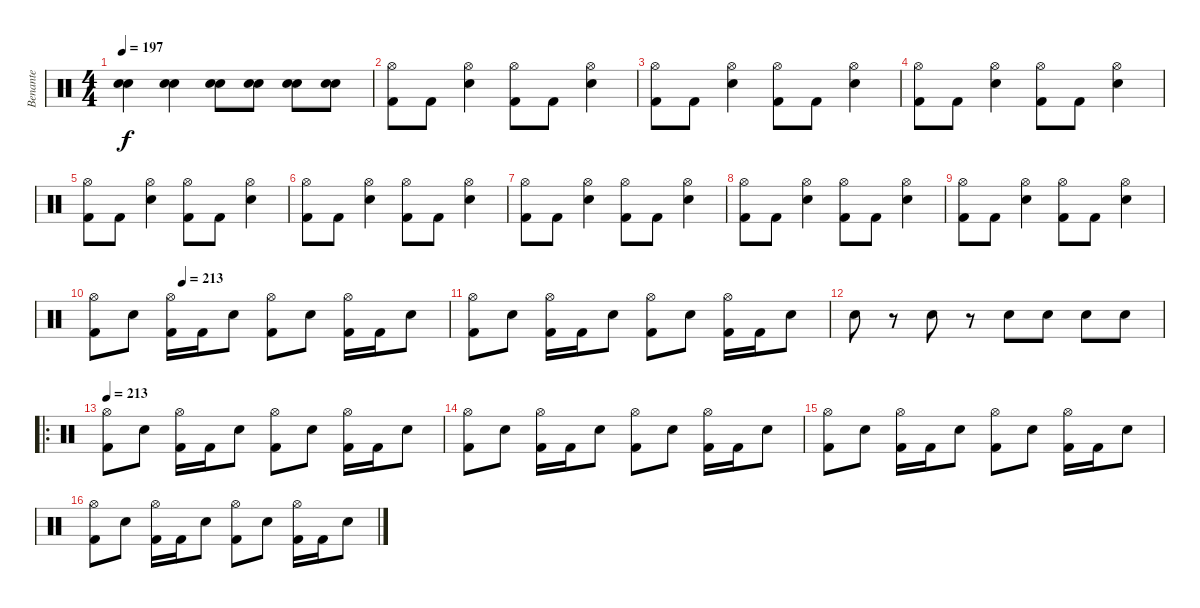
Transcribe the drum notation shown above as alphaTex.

\track ("Benante" "Benante") {solo instrument percussion}
\staff {score}
\articulation defaults
\ts (4 4)
\tempo 197
\clef neutral
\ks c
("Electric Snare (hit)" "Electric Snare (hit)").4{dy f} ("Electric Snare (hit)" "Electric Snare (hit)").4 ("Electric Snare (hit)" "Electric Snare (hit)").8 ("Electric Snare (hit)" "Electric Snare (hit)").8 ("Electric Snare (hit)" "Electric Snare (hit)").8 ("Electric Snare (hit)" "Electric Snare (hit)").8 |
("Kick (hit) 2" "Hi-Hat (open)").8 "Kick (hit) 2".8 ("Electric Snare (hit)" "Hi-Hat (open)").4 ("Kick (hit) 2" "Hi-Hat (open)").8 "Kick (hit) 2".8 ("Electric Snare (hit)" "Hi-Hat (open)").4 |
("Kick (hit) 2" "Hi-Hat (open)").8 "Kick (hit) 2".8 ("Electric Snare (hit)" "Hi-Hat (open)").4 ("Kick (hit) 2" "Hi-Hat (open)").8 "Kick (hit) 2".8 ("Electric Snare (hit)" "Hi-Hat (open)").4 |
("Kick (hit) 2" "Hi-Hat (open)").8 "Kick (hit) 2".8 ("Electric Snare (hit)" "Hi-Hat (open)").4 ("Kick (hit) 2" "Hi-Hat (open)").8 "Kick (hit) 2".8 ("Electric Snare (hit)" "Hi-Hat (open)").4 |
("Kick (hit) 2" "Hi-Hat (open)").8 "Kick (hit) 2".8 ("Electric Snare (hit)" "Hi-Hat (open)").4 ("Kick (hit) 2" "Hi-Hat (open)").8 "Kick (hit) 2".8 ("Electric Snare (hit)" "Hi-Hat (open)").4 |
("Kick (hit) 2" "Hi-Hat (open)").8 "Kick (hit) 2".8 ("Electric Snare (hit)" "Hi-Hat (open)").4 ("Kick (hit) 2" "Hi-Hat (open)").8 "Kick (hit) 2".8 ("Electric Snare (hit)" "Hi-Hat (open)").4 |
("Kick (hit) 2" "Hi-Hat (open)").8 "Kick (hit) 2".8 ("Electric Snare (hit)" "Hi-Hat (open)").4 ("Kick (hit) 2" "Hi-Hat (open)").8 "Kick (hit) 2".8 ("Electric Snare (hit)" "Hi-Hat (open)").4 |
("Kick (hit) 2" "Hi-Hat (open)").8 "Kick (hit) 2".8 ("Electric Snare (hit)" "Hi-Hat (open)").4 ("Kick (hit) 2" "Hi-Hat (open)").8 "Kick (hit) 2".8 ("Electric Snare (hit)" "Hi-Hat (open)").4 |
("Kick (hit) 2" "Hi-Hat (open)").8 "Kick (hit) 2".8 ("Electric Snare (hit)" "Hi-Hat (open)").4 ("Kick (hit) 2" "Hi-Hat (open)").8 "Kick (hit) 2".8 ("Electric Snare (hit)" "Hi-Hat (open)").4 |
\tempo (213 0.25)
("Kick (hit) 2" "Hi-Hat (open)").8 "Electric Snare (hit)".8 ("Kick (hit) 2" "Hi-Hat (open)").16 "Kick (hit) 2".16 "Electric Snare (hit)".8 ("Kick (hit) 2" "Hi-Hat (open)").8 "Electric Snare (hit)".8 ("Kick (hit) 2" "Hi-Hat (open)").16 "Kick (hit) 2".16 "Electric Snare (hit)".8 |
("Kick (hit) 2" "Hi-Hat (open)").8 "Electric Snare (hit)".8 ("Kick (hit) 2" "Hi-Hat (open)").16 "Kick (hit) 2".16 "Electric Snare (hit)".8 ("Kick (hit) 2" "Hi-Hat (open)").8 "Electric Snare (hit)".8 ("Kick (hit) 2" "Hi-Hat (open)").16 "Kick (hit) 2".16 "Electric Snare (hit)".8 |
"Electric Snare (hit)".8 r.8 "Electric Snare (hit)".8 r.8 "Electric Snare (hit)".8 "Electric Snare (hit)".8 "Electric Snare (hit)".8 "Electric Snare (hit)".8 |
\ro
\tempo 213
("Kick (hit) 2" "Hi-Hat (open)").8 "Electric Snare (hit)".8 ("Kick (hit) 2" "Hi-Hat (open)").16 "Kick (hit) 2".16 "Electric Snare (hit)".8 ("Kick (hit) 2" "Hi-Hat (open)").8 "Electric Snare (hit)".8 ("Kick (hit) 2" "Hi-Hat (open)").16 "Kick (hit) 2".16 "Electric Snare (hit)".8 |
("Kick (hit) 2" "Hi-Hat (open)").8 "Electric Snare (hit)".8 ("Kick (hit) 2" "Hi-Hat (open)").16 "Kick (hit) 2".16 "Electric Snare (hit)".8 ("Kick (hit) 2" "Hi-Hat (open)").8 "Electric Snare (hit)".8 ("Kick (hit) 2" "Hi-Hat (open)").16 "Kick (hit) 2".16 "Electric Snare (hit)".8 |
("Kick (hit) 2" "Hi-Hat (open)").8 "Electric Snare (hit)".8 ("Kick (hit) 2" "Hi-Hat (open)").16 "Kick (hit) 2".16 "Electric Snare (hit)".8 ("Kick (hit) 2" "Hi-Hat (open)").8 "Electric Snare (hit)".8 ("Kick (hit) 2" "Hi-Hat (open)").16 "Kick (hit) 2".16 "Electric Snare (hit)".8 |
("Kick (hit) 2" "Hi-Hat (open)").8 "Electric Snare (hit)".8 ("Kick (hit) 2" "Hi-Hat (open)").16 "Kick (hit) 2".16 "Electric Snare (hit)".8 ("Kick (hit) 2" "Hi-Hat (open)").8 "Electric Snare (hit)".8 ("Kick (hit) 2" "Hi-Hat (open)").16 "Kick (hit) 2".16 "Electric Snare (hit)".8
